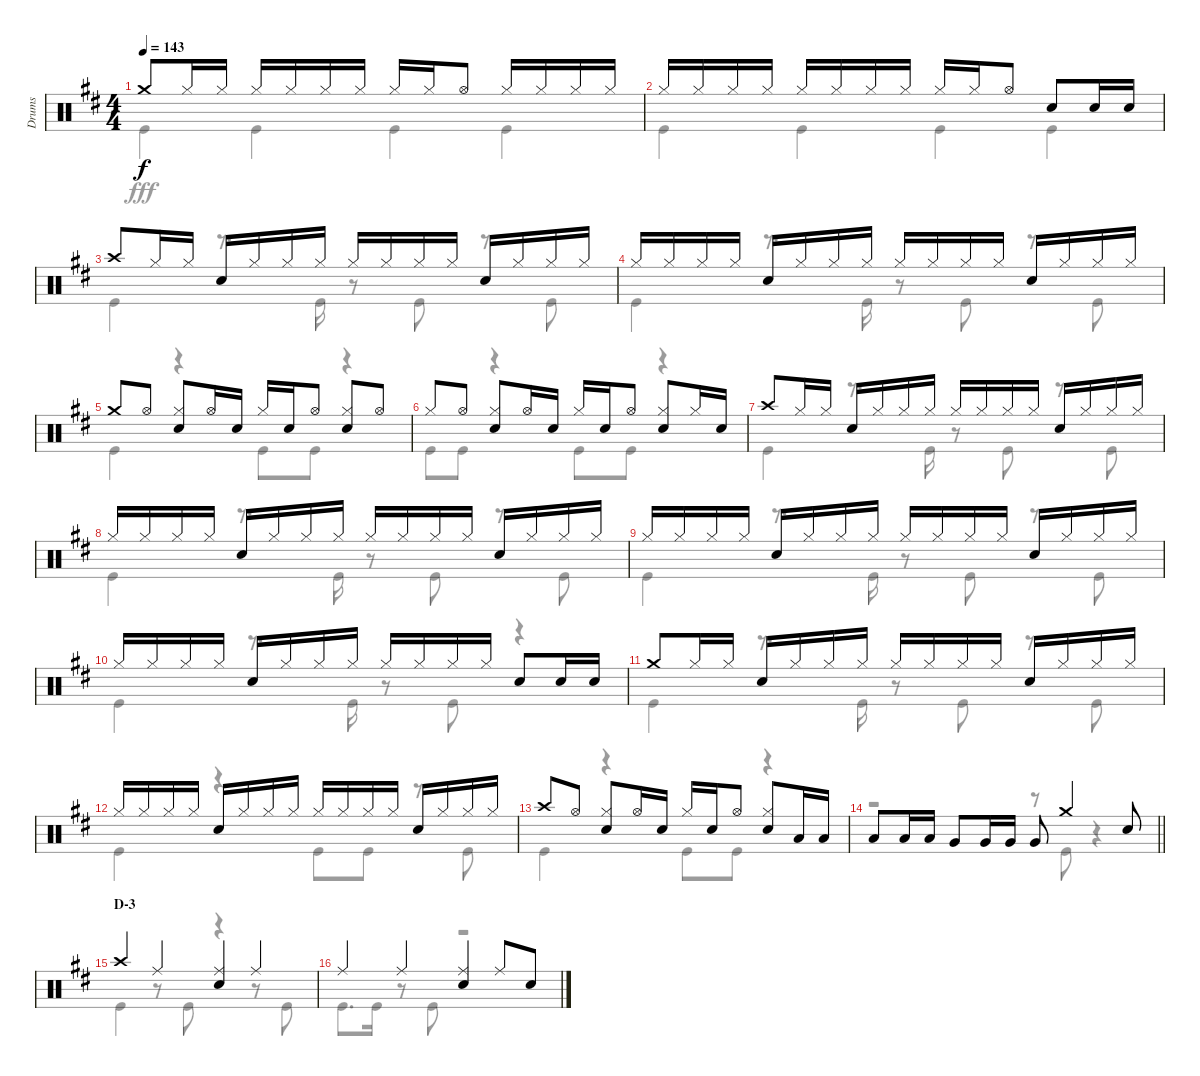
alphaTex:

\track ("Drums" "Drums") {instrument percussion}
\staff {score}
\articulation defaults
\voice
\ts (4 4)
\tempo 143
\clef neutral
\ks d "Crash medium (hit)".8{dy f} "Hi-Hat (closed)".16 "Hi-Hat (closed)".16 "Hi-Hat (closed)".16 "Hi-Hat (closed)".16 "Hi-Hat (closed)".16 "Hi-Hat (closed)".16 "Hi-Hat (closed)".16 "Hi-Hat (closed)".16 "Hi-Hat (open)".8 "Hi-Hat (closed)".16 "Hi-Hat (closed)".16 "Hi-Hat (closed)".16 "Hi-Hat (closed)".16
|
"Hi-Hat (closed)".16 "Hi-Hat (closed)".16 "Hi-Hat (closed)".16 "Hi-Hat (closed)".16 "Hi-Hat (closed)".16 "Hi-Hat (closed)".16 "Hi-Hat (closed)".16 "Hi-Hat (closed)".16 "Hi-Hat (closed)".16 "Hi-Hat (closed)".16 "Hi-Hat (open)".8 "Snare (hit) 2".8 "Snare (hit) 2".16 "Snare (hit) 2".16 |
"Crash high (hit)".8 "Hi-Hat (closed)".16 "Hi-Hat (closed)".16 "Snare (hit) 2".16 "Hi-Hat (closed)".16 "Hi-Hat (closed)".16 "Hi-Hat (closed)".16 "Hi-Hat (closed)".16 "Hi-Hat (closed)".16 "Hi-Hat (closed)".16 "Hi-Hat (closed)".16 "Snare (hit) 2".16 "Hi-Hat (closed)".16 "Hi-Hat (closed)".16 "Hi-Hat (closed)".16 |
"Hi-Hat (closed)".16 "Hi-Hat (closed)".16 "Hi-Hat (closed)".16 "Hi-Hat (closed)".16 "Snare (hit) 2".16 "Hi-Hat (closed)".16 "Hi-Hat (closed)".16 "Hi-Hat (closed)".16 "Hi-Hat (closed)".16 "Hi-Hat (closed)".16 "Hi-Hat (closed)".16 "Hi-Hat (closed)".16 "Snare (hit) 2".16 "Hi-Hat (closed)".16 "Hi-Hat (closed)".16 "Hi-Hat (closed)".16 |
"Crash medium (hit)".8 "Hi-Hat (open)".8 ("Hi-Hat (closed)" "Snare (hit) 2").8 "Hi-Hat (open)".16 "Snare (hit) 2".16 "Hi-Hat (closed)".16 "Snare (hit) 2".16 "Hi-Hat (open)".8 ("Hi-Hat (closed)" "Snare (hit) 2").8 "Hi-Hat (open)".8 |
"Hi-Hat (closed)".8 "Hi-Hat (open)".8 ("Hi-Hat (closed)" "Snare (hit) 2").8 "Hi-Hat (open)".16 "Snare (hit) 2".16 "Hi-Hat (closed)".16 "Snare (hit) 2".16 "Hi-Hat (open)".8 ("Hi-Hat (closed)" "Snare (hit) 2").8 "Hi-Hat (closed)".16 "Snare (hit) 2".16 |
"Crash high (hit)".8 "Hi-Hat (closed)".16 "Hi-Hat (closed)".16 "Snare (hit) 2".16 "Hi-Hat (closed)".16 "Hi-Hat (closed)".16 "Hi-Hat (closed)".16 "Hi-Hat (closed)".16 "Hi-Hat (closed)".16 "Hi-Hat (closed)".16 "Hi-Hat (closed)".16 "Snare (hit) 2".16 "Hi-Hat (closed)".16 "Hi-Hat (closed)".16 "Hi-Hat (closed)".16 |
"Hi-Hat (closed)".16 "Hi-Hat (closed)".16 "Hi-Hat (closed)".16 "Hi-Hat (closed)".16 "Snare (hit) 2".16 "Hi-Hat (closed)".16 "Hi-Hat (closed)".16 "Hi-Hat (closed)".16 "Hi-Hat (closed)".16 "Hi-Hat (closed)".16 "Hi-Hat (closed)".16 "Hi-Hat (closed)".16 "Snare (hit) 2".16 "Hi-Hat (closed)".16 "Hi-Hat (closed)".16 "Hi-Hat (closed)".16 |
"Hi-Hat (closed)".16 "Hi-Hat (closed)".16 "Hi-Hat (closed)".16 "Hi-Hat (closed)".16 "Snare (hit) 2".16 "Hi-Hat (closed)".16 "Hi-Hat (closed)".16 "Hi-Hat (closed)".16 "Hi-Hat (closed)".16 "Hi-Hat (closed)".16 "Hi-Hat (closed)".16 "Hi-Hat (closed)".16 "Snare (hit) 2".16 "Hi-Hat (closed)".16 "Hi-Hat (closed)".16 "Hi-Hat (closed)".16 |
"Hi-Hat (closed)".16 "Hi-Hat (closed)".16 "Hi-Hat (closed)".16 "Hi-Hat (closed)".16 "Snare (hit) 2".16 "Hi-Hat (closed)".16 "Hi-Hat (closed)".16 "Hi-Hat (closed)".16 "Hi-Hat (closed)".16 "Hi-Hat (closed)".16 "Hi-Hat (closed)".16 "Hi-Hat (closed)".16 "Snare (hit) 2".8 "Snare (hit) 2".16 "Snare (hit) 2".16 |
"Crash medium (hit)".8 "Hi-Hat (closed)".16 "Hi-Hat (closed)".16 "Snare (hit) 2".16 "Hi-Hat (closed)".16 "Hi-Hat (closed)".16 "Hi-Hat (closed)".16 "Hi-Hat (closed)".16 "Hi-Hat (closed)".16 "Hi-Hat (closed)".16 "Hi-Hat (closed)".16 "Snare (hit) 2".16 "Hi-Hat (closed)".16 "Hi-Hat (closed)".16 "Hi-Hat (closed)".16 |
"Hi-Hat (closed)".16 "Hi-Hat (closed)".16 "Hi-Hat (closed)".16 "Hi-Hat (closed)".16 "Snare (hit) 2".16 "Hi-Hat (closed)".16 "Hi-Hat (closed)".16 "Hi-Hat (closed)".16 "Hi-Hat (closed)".16 "Hi-Hat (closed)".16 "Hi-Hat (closed)".16 "Hi-Hat (closed)".16 "Snare (hit) 2".16 "Hi-Hat (closed)".16 "Hi-Hat (closed)".16 "Hi-Hat (closed)".16 |
"Crash high (hit)".8 "Hi-Hat (open)".8 ("Hi-Hat (closed)" "Snare (hit) 2").8 "Hi-Hat (open)".16 "Snare (hit) 2".16 "Hi-Hat (closed)".16 "Snare (hit) 2".16 "Hi-Hat (open)".8 ("Hi-Hat (closed)" "Snare (hit) 2").8 "Low Tom (hit)".16 "Low Tom (hit)".16 |
\barLineRight lightlight "Low Tom (hit)".8 "Low Tom (hit)".16 "Low Tom (hit)".16 "Very Low Tom (hit)".8 "Very Low Tom (hit)".16 "Very Low Tom (hit)".16 "Very Low Tom (hit)".8 "Crash medium (hit)".4 "Snare (hit) 2".8
|
\section ("" "D-3")
"Crash high (hit)".4 "Ride (middle)".4 ("Ride (middle)" "Snare (hit) 2").4 "Ride (middle)".4 |
"Ride (middle)".4 "Ride (middle)".4 ("Ride (middle)" "Snare (hit) 2").4 "Ride (middle)".8 "Snare (hit) 2".8
\voice
\clef neutral
\ottava regular
\simile none
\ks d "Kick (hit)".4{dy fff} "Kick (hit)".4 "Kick (hit)".4 "Kick (hit)".4
|
"Kick (hit)".4 "Kick (hit)".4 "Kick (hit)".4 "Kick (hit)".4 |
"Kick (hit)".4 r.8{d} "Kick (hit)".16 r.8 "Kick (hit)".8 r.8 "Kick (hit)".8 |
"Kick (hit)".4 r.8{d} "Kick (hit)".16 r.8 "Kick (hit)".8 r.8 "Kick (hit)".8 |
"Kick (hit)".4 r.4 "Kick (hit)".8 "Kick (hit)".8 r.4 |
"Kick (hit)".8 "Kick (hit)".8 r.4 "Kick (hit)".8 "Kick (hit)".8 r.4 |
"Kick (hit)".4 r.8{d} "Kick (hit)".16 r.8 "Kick (hit)".8 r.8 "Kick (hit)".8 |
"Kick (hit)".4 r.8{d} "Kick (hit)".16 r.8 "Kick (hit)".8 r.8 "Kick (hit)".8 |
"Kick (hit)".4 r.8{d} "Kick (hit)".16 r.8 "Kick (hit)".8 r.8 "Kick (hit)".8 |
"Kick (hit)".4 r.8{d} "Kick (hit)".16 r.8 "Kick (hit)".8 r.4 |
"Kick (hit)".4 r.8{d} "Kick (hit)".16 r.8 "Kick (hit)".8 r.8 "Kick (hit)".8 |
"Kick (hit)".4 r.4 "Kick (hit)".8 "Kick (hit)".8 r.8 "Kick (hit)".8 |
"Kick (hit)".4 r.4 "Kick (hit)".8 "Kick (hit)".8 r.4 |
\barLineRight lightlight
r.2 r.8 "Kick (hit)".8 r.4 |
"Kick (hit)".4 r.8 "Kick (hit)".8 r.4 r.8 "Kick (hit)".8 |
"Kick (hit)".8{d} "Kick (hit)".16 r.8 "Kick (hit)".8 r.2
